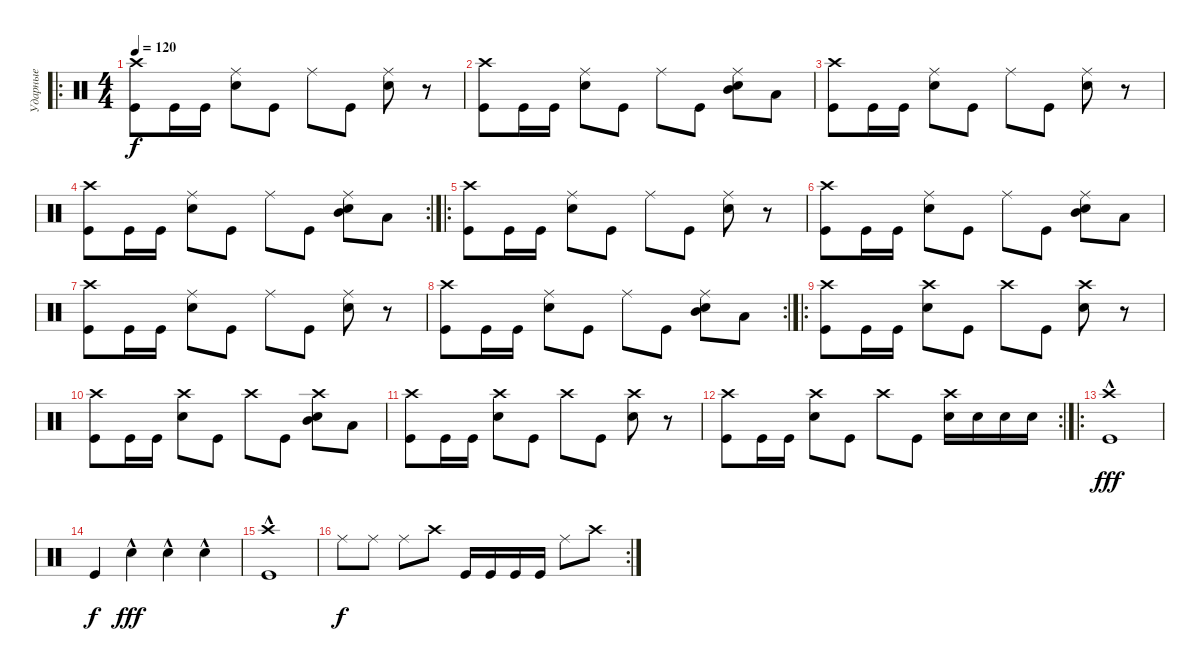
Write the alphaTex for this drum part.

\track ("Ударные" "Ударные") {instrument percussion}
\staff {score}
\articulation defaults
\ro
\ts (4 4)
\tempo 120
\clef neutral
\ks c
("Kick (hit)" "Crash high (hit)").8{dy f} "Kick (hit)".16 "Kick (hit)".16 ("Snare (hit) 2" "Ride (middle)").8 "Kick (hit)".8 "Ride (middle)".8 "Kick (hit)".8 ("Snare (hit) 2" "Ride (middle)").8 r.8 |
("Kick (hit)" "Crash high (hit)").8 "Kick (hit)".16 "Kick (hit)".16 ("Snare (hit) 2" "Ride (middle)").8 "Kick (hit)".8 "Ride (middle)".8 "Kick (hit)".8 ("Snare (hit) 2" "Ride (middle)" "Mid Tom (hit)").8 "Low Tom (hit)".8 |
("Kick (hit)" "Crash high (hit)").8 "Kick (hit)".16 "Kick (hit)".16 ("Snare (hit) 2" "Ride (middle)").8 "Kick (hit)".8 "Ride (middle)".8 "Kick (hit)".8 ("Snare (hit) 2" "Ride (middle)").8 r.8 |
\rc 2
("Kick (hit)" "Crash high (hit)").8 "Kick (hit)".16 "Kick (hit)".16 ("Snare (hit) 2" "Ride (middle)").8 "Kick (hit)".8 "Ride (middle)".8 "Kick (hit)".8 ("Snare (hit) 2" "Ride (middle)" "Mid Tom (hit)").8 "Low Tom (hit)".8 |
\ro
("Kick (hit)" "Crash high (hit)").8 "Kick (hit)".16 "Kick (hit)".16 ("Snare (hit) 2" "Ride (middle)").8 "Kick (hit)".8 "Ride (middle)".8 "Kick (hit)".8 ("Snare (hit) 2" "Ride (middle)").8 r.8 |
("Kick (hit)" "Crash high (hit)").8 "Kick (hit)".16 "Kick (hit)".16 ("Snare (hit) 2" "Ride (middle)").8 "Kick (hit)".8 "Ride (middle)".8 "Kick (hit)".8 ("Snare (hit) 2" "Ride (middle)" "Mid Tom (hit)").8 "Low Tom (hit)".8 |
("Kick (hit)" "Crash high (hit)").8 "Kick (hit)".16 "Kick (hit)".16 ("Snare (hit) 2" "Ride (middle)").8 "Kick (hit)".8 "Ride (middle)".8 "Kick (hit)".8 ("Snare (hit) 2" "Ride (middle)").8 r.8 |
\rc 2
("Kick (hit)" "Crash high (hit)").8 "Kick (hit)".16 "Kick (hit)".16 ("Snare (hit) 2" "Ride (middle)").8 "Kick (hit)".8 "Ride (middle)".8 "Kick (hit)".8 ("Snare (hit) 2" "Ride (middle)" "Mid Tom (hit)").8 "Low Tom (hit)".8 |
\ro
("Kick (hit)" "Crash high (hit)").8 "Kick (hit)".16 "Kick (hit)".16 ("Snare (hit) 2" "Crash high (hit)").8 "Kick (hit)".8 "Crash high (hit)".8 "Kick (hit)".8 ("Snare (hit) 2" "Crash high (hit)").8 r.8 |
("Kick (hit)" "Crash high (hit)").8 "Kick (hit)".16 "Kick (hit)".16 ("Snare (hit) 2" "Crash high (hit)").8 "Kick (hit)".8 "Crash high (hit)".8 "Kick (hit)".8 ("Snare (hit) 2" "Crash high (hit)" "Mid Tom (hit)").8 "Low Tom (hit)".8 |
("Kick (hit)" "Crash high (hit)").8 "Kick (hit)".16 "Kick (hit)".16 ("Snare (hit) 2" "Crash high (hit)").8 "Kick (hit)".8 "Crash high (hit)".8 "Kick (hit)".8 ("Snare (hit) 2" "Crash high (hit)").8 r.8 |
\rc 2
("Kick (hit)" "Crash high (hit)").8 "Kick (hit)".16 "Kick (hit)".16 ("Snare (hit) 2" "Crash high (hit)").8 "Kick (hit)".8 "Crash high (hit)".8 "Kick (hit)".8 ("Snare (hit) 2" "Crash high (hit)").16 "Snare (hit) 2".16 "Snare (hit) 2".16 "Snare (hit) 2".16 |
\ro
("Kick (hit)" "Crash high (hit)"{hac}).1{dy fff} |
"Kick (hit)".4{dy f} "Snare (hit) 2"{hac}.4{dy fff} "Snare (hit) 2"{hac}.4 "Snare (hit) 2"{hac}.4 |
("Kick (hit)" "Crash high (hit)"{hac}).1 |
\rc 2 "Ride (middle)".8{dy f} "Ride (middle)".8 "Ride (middle)".8 "Crash high (hit)".8 "Kick (hit)".16 "Kick (hit)".16 "Kick (hit)".16 "Kick (hit)".16 "Ride (middle)".8 "Crash high (hit)".8
